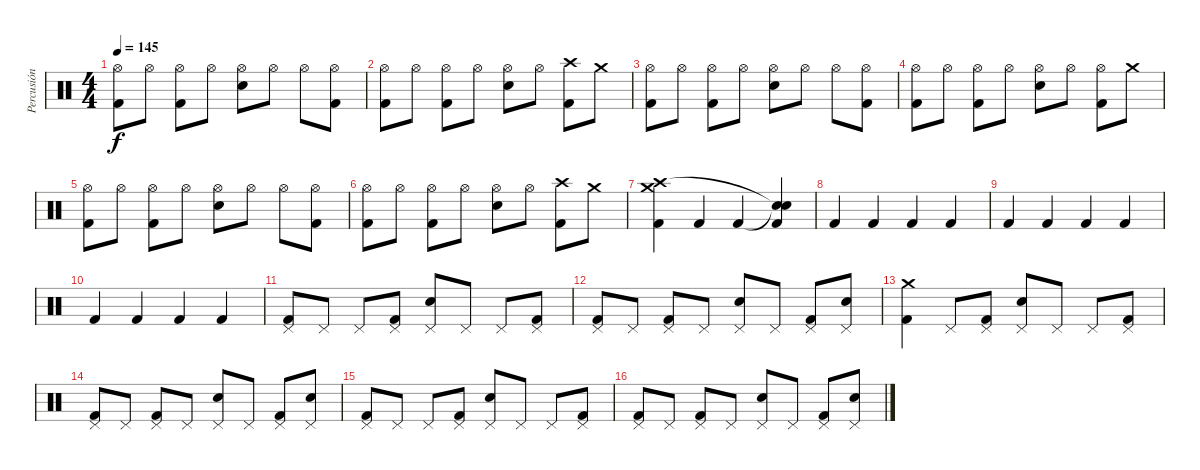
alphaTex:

\track ("Percusión" "Percusión") {instrument percussion}
\staff {score}
\articulation defaults
\ts (4 4)
\tempo 145
\clef neutral
\ks c
("Hi-Hat (open)" "Kick (hit) 2").8{dy f} "Hi-Hat (open)".8 ("Hi-Hat (open)" "Kick (hit) 2").8 "Hi-Hat (open)".8 ("Hi-Hat (open)" "Snare (hit) 2").8 "Hi-Hat (open)".8 "Hi-Hat (open)".8 ("Hi-Hat (open)" "Kick (hit) 2").8 |
("Hi-Hat (open)" "Kick (hit) 2").8 "Hi-Hat (open)".8 ("Hi-Hat (open)" "Kick (hit) 2").8 "Hi-Hat (open)".8 ("Hi-Hat (open)" "Snare (hit) 2").8 "Hi-Hat (open)".8 ("Crash high (hit)" "Kick (hit) 2").8 "Crash medium (hit)".8 |
("Hi-Hat (open)" "Kick (hit) 2").8 "Hi-Hat (open)".8 ("Hi-Hat (open)" "Kick (hit) 2").8 "Hi-Hat (open)".8 ("Hi-Hat (open)" "Snare (hit) 2").8 "Hi-Hat (open)".8 "Hi-Hat (open)".8 ("Hi-Hat (open)" "Kick (hit) 2").8 |
("Hi-Hat (open)" "Kick (hit) 2").8 "Hi-Hat (open)".8 ("Hi-Hat (open)" "Kick (hit) 2").8 "Hi-Hat (open)".8 ("Hi-Hat (open)" "Snare (hit) 2").8 "Hi-Hat (open)".8 ("Hi-Hat (open)" "Kick (hit) 2").8 "Crash medium (hit)".8 |
("Hi-Hat (open)" "Kick (hit) 2").8 "Hi-Hat (open)".8 ("Hi-Hat (open)" "Kick (hit) 2").8 "Hi-Hat (open)".8 ("Hi-Hat (open)" "Snare (hit) 2").8 "Hi-Hat (open)".8 "Hi-Hat (open)".8 ("Hi-Hat (open)" "Kick (hit) 2").8 |
("Hi-Hat (open)" "Kick (hit) 2").8 "Hi-Hat (open)".8 ("Hi-Hat (open)" "Kick (hit) 2").8 "Hi-Hat (open)".8 ("Hi-Hat (open)" "Snare (hit) 2").8 "Hi-Hat (open)".8 ("Crash high (hit)" "Kick (hit) 2").8 "Crash medium (hit)".8 |
("Crash medium (hit)" "Crash high (hit)" "Kick (hit) 2").4 "Kick (hit) 2".4 "Kick (hit) 2".4 ("Snare (hit)"{t} "Snare (hit)"{t} "Kick (hit) 2").4 |
"Kick (hit) 2".4 "Kick (hit) 2".4 "Kick (hit) 2".4 "Kick (hit) 2".4 |
"Kick (hit) 2".4 "Kick (hit) 2".4 "Kick (hit) 2".4 "Kick (hit) 2".4 |
"Kick (hit) 2".4 "Kick (hit) 2".4 "Kick (hit) 2".4 "Kick (hit) 2".4 |
("Pedal Hi-Hat (hit)" "Kick (hit) 2").8 "Pedal Hi-Hat (hit)".8 "Pedal Hi-Hat (hit)".8 ("Pedal Hi-Hat (hit)" "Kick (hit) 2").8 ("Pedal Hi-Hat (hit)" "Snare (hit) 2").8 "Pedal Hi-Hat (hit)".8 "Pedal Hi-Hat (hit)".8 ("Pedal Hi-Hat (hit)" "Kick (hit) 2").8 |
("Pedal Hi-Hat (hit)" "Kick (hit) 2").8 "Pedal Hi-Hat (hit)".8 ("Pedal Hi-Hat (hit)" "Kick (hit) 2").8 "Pedal Hi-Hat (hit)".8 ("Pedal Hi-Hat (hit)" "Snare (hit) 2").8 "Pedal Hi-Hat (hit)".8 ("Pedal Hi-Hat (hit)" "Kick (hit) 2").8 ("Pedal Hi-Hat (hit)" "Snare (hit) 2").8 |
("Crash medium (hit)" "Kick (hit) 2").4 "Pedal Hi-Hat (hit)".8 ("Pedal Hi-Hat (hit)" "Kick (hit) 2").8 ("Pedal Hi-Hat (hit)" "Snare (hit) 2").8 "Pedal Hi-Hat (hit)".8 "Pedal Hi-Hat (hit)".8 ("Pedal Hi-Hat (hit)" "Kick (hit) 2").8 |
("Pedal Hi-Hat (hit)" "Kick (hit) 2").8 "Pedal Hi-Hat (hit)".8 ("Pedal Hi-Hat (hit)" "Kick (hit) 2").8 "Pedal Hi-Hat (hit)".8 ("Pedal Hi-Hat (hit)" "Snare (hit) 2").8 "Pedal Hi-Hat (hit)".8 ("Pedal Hi-Hat (hit)" "Kick (hit) 2").8 ("Pedal Hi-Hat (hit)" "Snare (hit) 2").8 |
("Pedal Hi-Hat (hit)" "Kick (hit) 2").8 "Pedal Hi-Hat (hit)".8 "Pedal Hi-Hat (hit)".8 ("Pedal Hi-Hat (hit)" "Kick (hit) 2").8 ("Pedal Hi-Hat (hit)" "Snare (hit) 2").8 "Pedal Hi-Hat (hit)".8 "Pedal Hi-Hat (hit)".8 ("Pedal Hi-Hat (hit)" "Kick (hit) 2").8 |
("Pedal Hi-Hat (hit)" "Kick (hit) 2").8 "Pedal Hi-Hat (hit)".8 ("Pedal Hi-Hat (hit)" "Kick (hit) 2").8 "Pedal Hi-Hat (hit)".8 ("Pedal Hi-Hat (hit)" "Snare (hit) 2").8 "Pedal Hi-Hat (hit)".8 ("Pedal Hi-Hat (hit)" "Kick (hit) 2").8 ("Pedal Hi-Hat (hit)" "Snare (hit) 2").8
